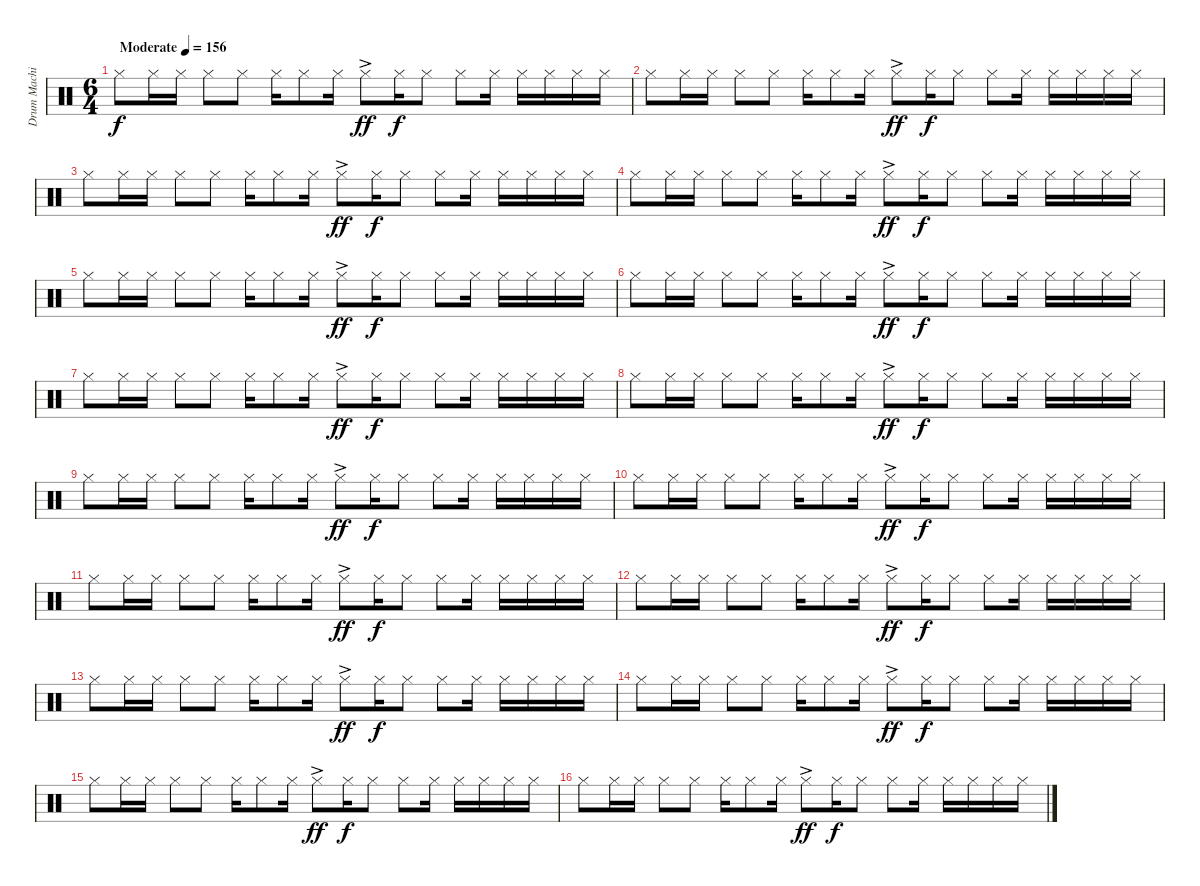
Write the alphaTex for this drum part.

\track ("Drum Machine" "Drum Machi") {instrument percussion bank 210}
\staff {score}
\articulation defaults
\ts (6 4)
\tempo (156 "Moderate")
\clef neutral
\ks c "Hi-Hat (closed)".8{dy f volume 9} "Hi-Hat (closed)".16 "Hi-Hat (closed)".16 "Hi-Hat (closed)".8 "Hi-Hat (closed)".8 "Hi-Hat (closed)".16 "Hi-Hat (closed)".8 "Hi-Hat (closed)".16 "Hi-Hat (closed)"{ac}.8{dy ff} "Hi-Hat (closed)".16{dy f} "Hi-Hat (closed)".8 "Hi-Hat (closed)".8 "Hi-Hat (closed)".16 "Hi-Hat (closed)".16 "Hi-Hat (closed)".16 "Hi-Hat (closed)".16 "Hi-Hat (closed)".16
|
"Hi-Hat (closed)".8 "Hi-Hat (closed)".16 "Hi-Hat (closed)".16 "Hi-Hat (closed)".8 "Hi-Hat (closed)".8 "Hi-Hat (closed)".16 "Hi-Hat (closed)".8 "Hi-Hat (closed)".16 "Hi-Hat (closed)"{ac}.8{dy ff} "Hi-Hat (closed)".16{dy f} "Hi-Hat (closed)".8 "Hi-Hat (closed)".8 "Hi-Hat (closed)".16 "Hi-Hat (closed)".16 "Hi-Hat (closed)".16 "Hi-Hat (closed)".16 "Hi-Hat (closed)".16 |
"Hi-Hat (closed)".8 "Hi-Hat (closed)".16 "Hi-Hat (closed)".16 "Hi-Hat (closed)".8 "Hi-Hat (closed)".8 "Hi-Hat (closed)".16 "Hi-Hat (closed)".8 "Hi-Hat (closed)".16 "Hi-Hat (closed)"{ac}.8{dy ff} "Hi-Hat (closed)".16{dy f} "Hi-Hat (closed)".8 "Hi-Hat (closed)".8 "Hi-Hat (closed)".16 "Hi-Hat (closed)".16 "Hi-Hat (closed)".16 "Hi-Hat (closed)".16 "Hi-Hat (closed)".16 |
"Hi-Hat (closed)".8 "Hi-Hat (closed)".16 "Hi-Hat (closed)".16 "Hi-Hat (closed)".8 "Hi-Hat (closed)".8 "Hi-Hat (closed)".16 "Hi-Hat (closed)".8 "Hi-Hat (closed)".16 "Hi-Hat (closed)"{ac}.8{dy ff} "Hi-Hat (closed)".16{dy f} "Hi-Hat (closed)".8 "Hi-Hat (closed)".8 "Hi-Hat (closed)".16 "Hi-Hat (closed)".16 "Hi-Hat (closed)".16 "Hi-Hat (closed)".16 "Hi-Hat (closed)".16 |
"Hi-Hat (closed)".8 "Hi-Hat (closed)".16 "Hi-Hat (closed)".16 "Hi-Hat (closed)".8 "Hi-Hat (closed)".8 "Hi-Hat (closed)".16 "Hi-Hat (closed)".8 "Hi-Hat (closed)".16 "Hi-Hat (closed)"{ac}.8{dy ff} "Hi-Hat (closed)".16{dy f} "Hi-Hat (closed)".8 "Hi-Hat (closed)".8 "Hi-Hat (closed)".16 "Hi-Hat (closed)".16 "Hi-Hat (closed)".16 "Hi-Hat (closed)".16 "Hi-Hat (closed)".16 |
"Hi-Hat (closed)".8 "Hi-Hat (closed)".16 "Hi-Hat (closed)".16 "Hi-Hat (closed)".8 "Hi-Hat (closed)".8 "Hi-Hat (closed)".16 "Hi-Hat (closed)".8 "Hi-Hat (closed)".16 "Hi-Hat (closed)"{ac}.8{dy ff} "Hi-Hat (closed)".16{dy f} "Hi-Hat (closed)".8 "Hi-Hat (closed)".8 "Hi-Hat (closed)".16 "Hi-Hat (closed)".16 "Hi-Hat (closed)".16 "Hi-Hat (closed)".16 "Hi-Hat (closed)".16 |
"Hi-Hat (closed)".8 "Hi-Hat (closed)".16 "Hi-Hat (closed)".16 "Hi-Hat (closed)".8 "Hi-Hat (closed)".8 "Hi-Hat (closed)".16 "Hi-Hat (closed)".8 "Hi-Hat (closed)".16 "Hi-Hat (closed)"{ac}.8{dy ff} "Hi-Hat (closed)".16{dy f} "Hi-Hat (closed)".8 "Hi-Hat (closed)".8 "Hi-Hat (closed)".16 "Hi-Hat (closed)".16 "Hi-Hat (closed)".16 "Hi-Hat (closed)".16 "Hi-Hat (closed)".16 |
"Hi-Hat (closed)".8 "Hi-Hat (closed)".16 "Hi-Hat (closed)".16 "Hi-Hat (closed)".8 "Hi-Hat (closed)".8 "Hi-Hat (closed)".16 "Hi-Hat (closed)".8 "Hi-Hat (closed)".16 "Hi-Hat (closed)"{ac}.8{dy ff} "Hi-Hat (closed)".16{dy f} "Hi-Hat (closed)".8 "Hi-Hat (closed)".8 "Hi-Hat (closed)".16 "Hi-Hat (closed)".16 "Hi-Hat (closed)".16 "Hi-Hat (closed)".16 "Hi-Hat (closed)".16 |
"Hi-Hat (closed)".8 "Hi-Hat (closed)".16 "Hi-Hat (closed)".16 "Hi-Hat (closed)".8 "Hi-Hat (closed)".8 "Hi-Hat (closed)".16 "Hi-Hat (closed)".8 "Hi-Hat (closed)".16 "Hi-Hat (closed)"{ac}.8{dy ff} "Hi-Hat (closed)".16{dy f} "Hi-Hat (closed)".8 "Hi-Hat (closed)".8 "Hi-Hat (closed)".16 "Hi-Hat (closed)".16 "Hi-Hat (closed)".16 "Hi-Hat (closed)".16 "Hi-Hat (closed)".16 |
"Hi-Hat (closed)".8 "Hi-Hat (closed)".16 "Hi-Hat (closed)".16 "Hi-Hat (closed)".8 "Hi-Hat (closed)".8 "Hi-Hat (closed)".16 "Hi-Hat (closed)".8 "Hi-Hat (closed)".16 "Hi-Hat (closed)"{ac}.8{dy ff} "Hi-Hat (closed)".16{dy f} "Hi-Hat (closed)".8 "Hi-Hat (closed)".8 "Hi-Hat (closed)".16 "Hi-Hat (closed)".16 "Hi-Hat (closed)".16 "Hi-Hat (closed)".16 "Hi-Hat (closed)".16 |
"Hi-Hat (closed)".8 "Hi-Hat (closed)".16 "Hi-Hat (closed)".16 "Hi-Hat (closed)".8 "Hi-Hat (closed)".8 "Hi-Hat (closed)".16 "Hi-Hat (closed)".8 "Hi-Hat (closed)".16 "Hi-Hat (closed)"{ac}.8{dy ff} "Hi-Hat (closed)".16{dy f} "Hi-Hat (closed)".8 "Hi-Hat (closed)".8 "Hi-Hat (closed)".16 "Hi-Hat (closed)".16 "Hi-Hat (closed)".16 "Hi-Hat (closed)".16 "Hi-Hat (closed)".16 |
"Hi-Hat (closed)".8 "Hi-Hat (closed)".16 "Hi-Hat (closed)".16 "Hi-Hat (closed)".8 "Hi-Hat (closed)".8 "Hi-Hat (closed)".16 "Hi-Hat (closed)".8 "Hi-Hat (closed)".16 "Hi-Hat (closed)"{ac}.8{dy ff} "Hi-Hat (closed)".16{dy f} "Hi-Hat (closed)".8 "Hi-Hat (closed)".8 "Hi-Hat (closed)".16 "Hi-Hat (closed)".16 "Hi-Hat (closed)".16 "Hi-Hat (closed)".16 "Hi-Hat (closed)".16 |
"Hi-Hat (closed)".8 "Hi-Hat (closed)".16 "Hi-Hat (closed)".16 "Hi-Hat (closed)".8 "Hi-Hat (closed)".8 "Hi-Hat (closed)".16 "Hi-Hat (closed)".8 "Hi-Hat (closed)".16 "Hi-Hat (closed)"{ac}.8{dy ff} "Hi-Hat (closed)".16{dy f} "Hi-Hat (closed)".8 "Hi-Hat (closed)".8 "Hi-Hat (closed)".16 "Hi-Hat (closed)".16 "Hi-Hat (closed)".16 "Hi-Hat (closed)".16 "Hi-Hat (closed)".16 |
"Hi-Hat (closed)".8 "Hi-Hat (closed)".16 "Hi-Hat (closed)".16 "Hi-Hat (closed)".8 "Hi-Hat (closed)".8 "Hi-Hat (closed)".16 "Hi-Hat (closed)".8 "Hi-Hat (closed)".16 "Hi-Hat (closed)"{ac}.8{dy ff} "Hi-Hat (closed)".16{dy f} "Hi-Hat (closed)".8 "Hi-Hat (closed)".8 "Hi-Hat (closed)".16 "Hi-Hat (closed)".16 "Hi-Hat (closed)".16 "Hi-Hat (closed)".16 "Hi-Hat (closed)".16 |
"Hi-Hat (closed)".8 "Hi-Hat (closed)".16 "Hi-Hat (closed)".16 "Hi-Hat (closed)".8 "Hi-Hat (closed)".8 "Hi-Hat (closed)".16 "Hi-Hat (closed)".8 "Hi-Hat (closed)".16 "Hi-Hat (closed)"{ac}.8{dy ff} "Hi-Hat (closed)".16{dy f} "Hi-Hat (closed)".8 "Hi-Hat (closed)".8 "Hi-Hat (closed)".16 "Hi-Hat (closed)".16 "Hi-Hat (closed)".16 "Hi-Hat (closed)".16 "Hi-Hat (closed)".16 |
"Hi-Hat (closed)".8 "Hi-Hat (closed)".16 "Hi-Hat (closed)".16 "Hi-Hat (closed)".8 "Hi-Hat (closed)".8 "Hi-Hat (closed)".16 "Hi-Hat (closed)".8 "Hi-Hat (closed)".16 "Hi-Hat (closed)"{ac}.8{dy ff} "Hi-Hat (closed)".16{dy f} "Hi-Hat (closed)".8 "Hi-Hat (closed)".8 "Hi-Hat (closed)".16 "Hi-Hat (closed)".16 "Hi-Hat (closed)".16 "Hi-Hat (closed)".16 "Hi-Hat (closed)".16
